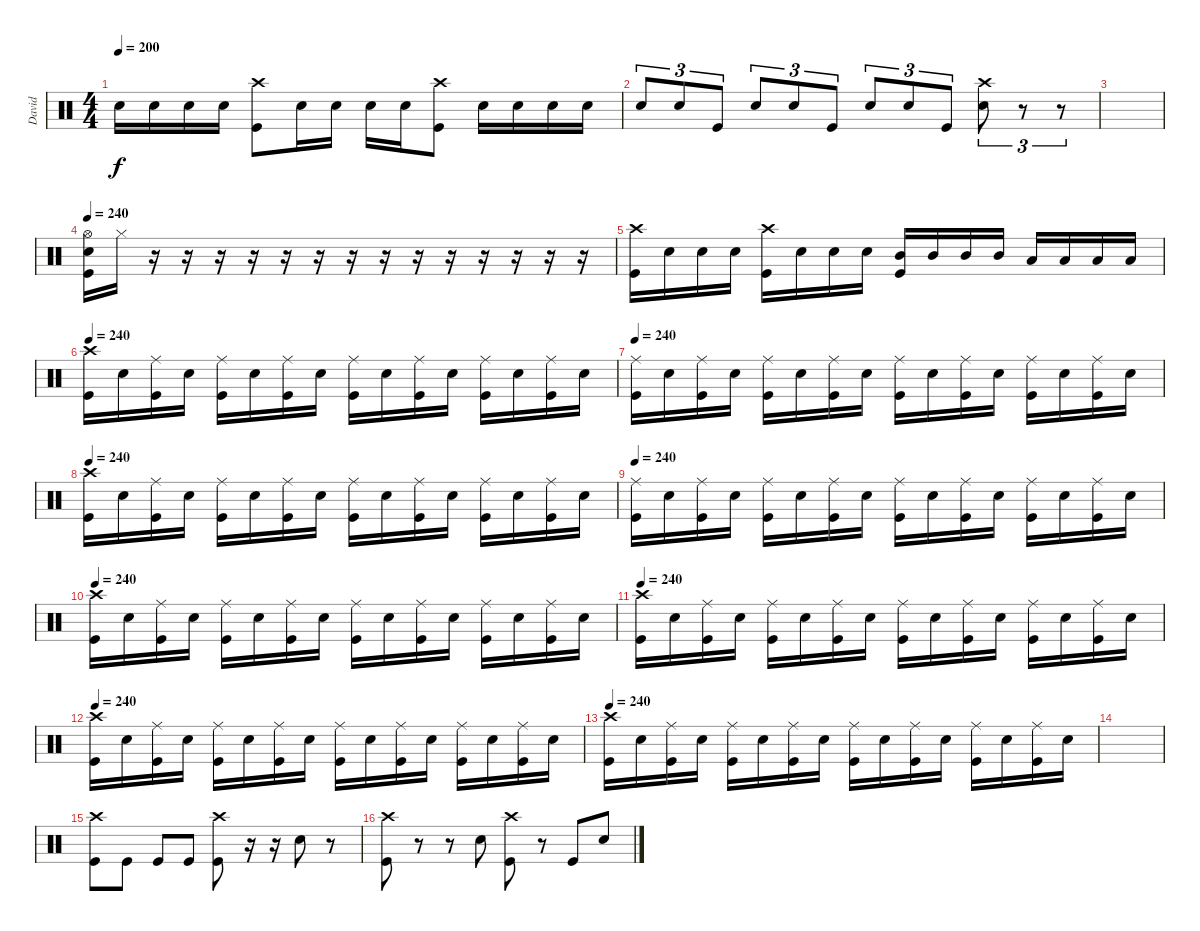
\track ("David" "David") {instrument percussion}
\staff {score}
\articulation defaults
\ts (4 4)
\tempo 200
\clef neutral
\ks c "Electric Snare (hit)".16{dy f} "Electric Snare (hit)".16 "Electric Snare (hit)".16 "Electric Snare (hit)".16
("Crash high (hit)" "Kick (hit)").8 "Electric Snare (hit)".16 "Electric Snare (hit)".16 "Electric Snare (hit)".16 "Electric Snare (hit)".16 ("Crash high (hit)" "Kick (hit)").8 "Electric Snare (hit)".16 "Electric Snare (hit)".16 "Electric Snare (hit)".16 "Electric Snare (hit)".16 |
"Electric Snare (hit)".8{tu (3 2)} "Electric Snare (hit)".8{tu (3 2)} "Kick (hit)".8{tu (3 2)} "Electric Snare (hit)".8{tu (3 2)} "Electric Snare (hit)".8{tu (3 2)} "Kick (hit)".8{tu (3 2)} "Electric Snare (hit)".8{tu (3 2)} "Electric Snare (hit)".8{tu (3 2)} "Kick (hit)".8{tu (3 2)} ("Crash high (hit)" "Electric Snare (hit)").8{tu (3 2)} r.8{tu (3 2)} r.8{tu (3 2)} |
|
\tempo 240
("Hi-Hat (open)" "Electric Snare (hit)" "Kick (hit)").16 "Hi-Hat (closed)".16 r.16 r.16 r.16 r.16 r.16 r.16 r.16 r.16 r.16 r.16 r.16 r.16 r.16 r.16 |
("Crash high (hit)" "Kick (hit)").16 "Electric Snare (hit)".16 "Electric Snare (hit)".16 "Electric Snare (hit)".16 ("Crash high (hit)" "Kick (hit)").16 "Electric Snare (hit)".16 "Electric Snare (hit)".16 "Electric Snare (hit)".16 ("Mid Tom (hit)" "Kick (hit)").16 "Mid Tom (hit)".16 "Mid Tom (hit)".16 "Mid Tom (hit)".16 "Low Tom (hit)".16 "Low Tom (hit)".16 "Low Tom (hit)".16 "Low Tom (hit)".16 |
\tempo 240
("Crash high (hit)" "Kick (hit)").16 "Electric Snare (hit)".16 ("Ride (middle)" "Kick (hit)").16 "Electric Snare (hit)".16 ("Ride (middle)" "Kick (hit)").16 "Electric Snare (hit)".16 ("Ride (middle)" "Kick (hit)").16 "Electric Snare (hit)".16 ("Ride (middle)" "Kick (hit)").16 "Electric Snare (hit)".16 ("Ride (middle)" "Kick (hit)").16 "Electric Snare (hit)".16 ("Ride (middle)" "Kick (hit)").16 "Electric Snare (hit)".16 ("Ride (middle)" "Kick (hit)").16 "Electric Snare (hit)".16 |
\tempo 240
("Ride (middle)" "Kick (hit)").16 "Electric Snare (hit)".16 ("Ride (middle)" "Kick (hit)").16 "Electric Snare (hit)".16 ("Ride (middle)" "Kick (hit)").16 "Electric Snare (hit)".16 ("Ride (middle)" "Kick (hit)").16 "Electric Snare (hit)".16 ("Ride (middle)" "Kick (hit)").16 "Electric Snare (hit)".16 ("Ride (middle)" "Kick (hit)").16 "Electric Snare (hit)".16 ("Ride (middle)" "Kick (hit)").16 "Electric Snare (hit)".16 ("Ride (middle)" "Kick (hit)").16 "Electric Snare (hit)".16 |
\tempo 240
("Crash high (hit)" "Kick (hit)").16 "Electric Snare (hit)".16 ("Ride (middle)" "Kick (hit)").16 "Electric Snare (hit)".16 ("Ride (middle)" "Kick (hit)").16 "Electric Snare (hit)".16 ("Ride (middle)" "Kick (hit)").16 "Electric Snare (hit)".16 ("Ride (middle)" "Kick (hit)").16 "Electric Snare (hit)".16 ("Ride (middle)" "Kick (hit)").16 "Electric Snare (hit)".16 ("Ride (middle)" "Kick (hit)").16 "Electric Snare (hit)".16 ("Ride (middle)" "Kick (hit)").16 "Electric Snare (hit)".16 |
\tempo 240
("Ride (middle)" "Kick (hit)").16 "Electric Snare (hit)".16 ("Ride (middle)" "Kick (hit)").16 "Electric Snare (hit)".16 ("Ride (middle)" "Kick (hit)").16 "Electric Snare (hit)".16 ("Ride (middle)" "Kick (hit)").16 "Electric Snare (hit)".16 ("Ride (middle)" "Kick (hit)").16 "Electric Snare (hit)".16 ("Ride (middle)" "Kick (hit)").16 "Electric Snare (hit)".16 ("Ride (middle)" "Kick (hit)").16 "Electric Snare (hit)".16 ("Ride (middle)" "Kick (hit)").16 "Electric Snare (hit)".16 |
\tempo 240
("Crash high (hit)" "Kick (hit)").16 "Electric Snare (hit)".16 ("Ride (middle)" "Kick (hit)").16 "Electric Snare (hit)".16 ("Ride (middle)" "Kick (hit)").16 "Electric Snare (hit)".16 ("Ride (middle)" "Kick (hit)").16 "Electric Snare (hit)".16 ("Ride (middle)" "Kick (hit)").16 "Electric Snare (hit)".16 ("Ride (middle)" "Kick (hit)").16 "Electric Snare (hit)".16 ("Ride (middle)" "Kick (hit)").16 "Electric Snare (hit)".16 ("Ride (middle)" "Kick (hit)").16 "Electric Snare (hit)".16 |
\tempo 240
("Crash high (hit)" "Kick (hit)").16 "Electric Snare (hit)".16 ("Ride (middle)" "Kick (hit)").16 "Electric Snare (hit)".16 ("Ride (middle)" "Kick (hit)").16 "Electric Snare (hit)".16 ("Ride (middle)" "Kick (hit)").16 "Electric Snare (hit)".16 ("Ride (middle)" "Kick (hit)").16 "Electric Snare (hit)".16 ("Ride (middle)" "Kick (hit)").16 "Electric Snare (hit)".16 ("Ride (middle)" "Kick (hit)").16 "Electric Snare (hit)".16 ("Ride (middle)" "Kick (hit)").16 "Electric Snare (hit)".16 |
\tempo 240
("Crash high (hit)" "Kick (hit)").16 "Electric Snare (hit)".16 ("Ride (middle)" "Kick (hit)").16 "Electric Snare (hit)".16 ("Ride (middle)" "Kick (hit)").16 "Electric Snare (hit)".16 ("Ride (middle)" "Kick (hit)").16 "Electric Snare (hit)".16 ("Ride (middle)" "Kick (hit)").16 "Electric Snare (hit)".16 ("Ride (middle)" "Kick (hit)").16 "Electric Snare (hit)".16 ("Ride (middle)" "Kick (hit)").16 "Electric Snare (hit)".16 ("Ride (middle)" "Kick (hit)").16 "Electric Snare (hit)".16 |
\tempo 240
("Crash high (hit)" "Kick (hit)").16 "Electric Snare (hit)".16 ("Ride (middle)" "Kick (hit)").16 "Electric Snare (hit)".16 ("Ride (middle)" "Kick (hit)").16 "Electric Snare (hit)".16 ("Ride (middle)" "Kick (hit)").16 "Electric Snare (hit)".16 ("Ride (middle)" "Kick (hit)").16 "Electric Snare (hit)".16 ("Ride (middle)" "Kick (hit)").16 "Electric Snare (hit)".16 ("Ride (middle)" "Kick (hit)").16 "Electric Snare (hit)".16 ("Ride (middle)" "Kick (hit)").16 "Electric Snare (hit)".16 |
|
("Crash high (hit)" "Kick (hit)").8 "Kick (hit)".8 "Kick (hit)".8 "Kick (hit)".8 ("Crash high (hit)" "Kick (hit)").8 r.16 r.16 "Electric Snare (hit)".8 r.8 |
("Crash high (hit)" "Kick (hit)").8 r.8 r.8 "Electric Snare (hit)".8 ("Crash high (hit)" "Kick (hit)").8 r.8 "Kick (hit)".8 "Electric Snare (hit)".8
